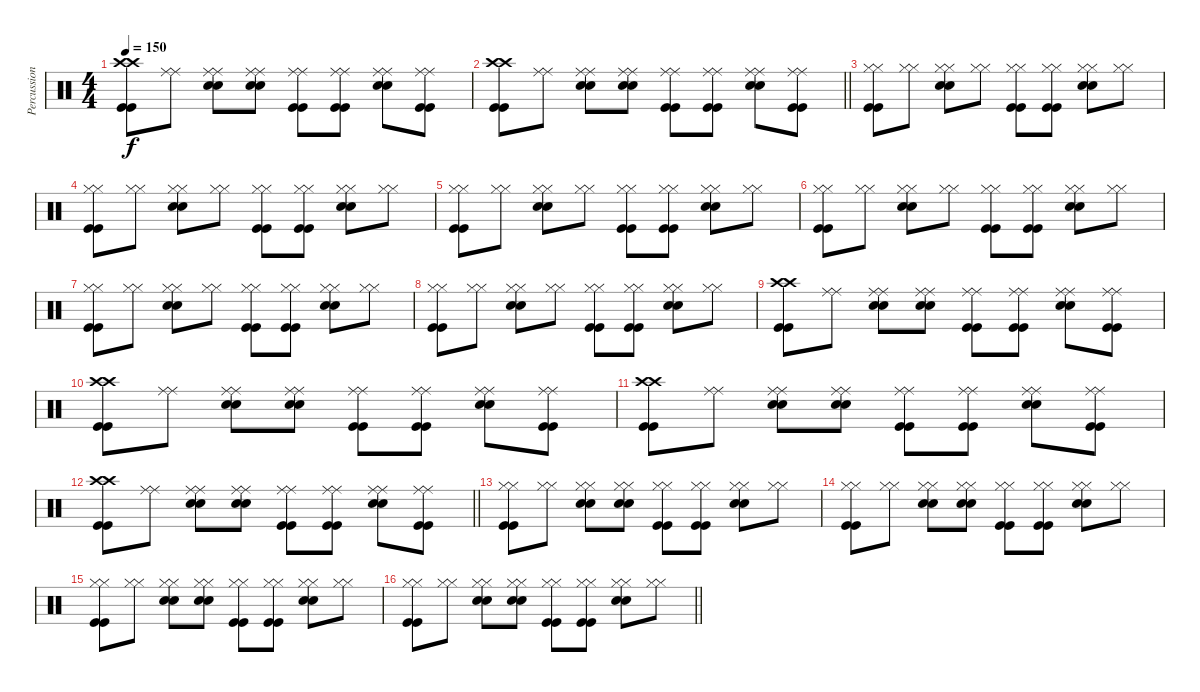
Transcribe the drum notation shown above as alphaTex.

\track ("Percussion" "Percussion") {instrument percussion bank 129}
\staff
\articulation defaults
\ts (4 4)
\tempo 150
\clef neutral
\ks c
("Crash high (hit)" "Crash high (hit)" "Kick (hit)" "Kick (hit)").8{dy f} ("Ride (middle)" "Ride (middle)").8 ("Ride (middle)" "Ride (middle)" "Snare (hit) 2" "Snare (hit) 2").8 ("Ride (middle)" "Ride (middle)" "Snare (hit) 2" "Snare (hit) 2").8 ("Ride (middle)" "Ride (middle)" "Kick (hit)" "Kick (hit)").8 ("Ride (middle)" "Ride (middle)" "Kick (hit)" "Kick (hit)").8 ("Ride (middle)" "Ride (middle)" "Snare (hit) 2" "Snare (hit) 2").8 ("Ride (middle)" "Ride (middle)" "Kick (hit)" "Kick (hit)").8 |
\barLineRight lightlight
("Crash high (hit)" "Crash high (hit)" "Kick (hit)" "Kick (hit)").8 ("Ride (middle)" "Ride (middle)").8 ("Ride (middle)" "Ride (middle)" "Snare (hit) 2" "Snare (hit) 2").8 ("Ride (middle)" "Ride (middle)" "Snare (hit) 2" "Snare (hit) 2").8 ("Ride (middle)" "Ride (middle)" "Kick (hit)" "Kick (hit)").8 ("Ride (middle)" "Ride (middle)" "Kick (hit)" "Kick (hit)").8 ("Ride (middle)" "Ride (middle)" "Snare (hit) 2" "Snare (hit) 2").8 ("Ride (middle)" "Ride (middle)" "Kick (hit)" "Kick (hit)").8 |
("Hi-Hat (closed)" "Hi-Hat (closed)" "Kick (hit)" "Kick (hit)").8 ("Hi-Hat (closed)" "Hi-Hat (closed)").8 ("Hi-Hat (closed)" "Hi-Hat (closed)" "Snare (hit) 2" "Snare (hit) 2").8 ("Hi-Hat (closed)" "Hi-Hat (closed)").8 ("Hi-Hat (closed)" "Hi-Hat (closed)" "Kick (hit)" "Kick (hit)").8 ("Hi-Hat (closed)" "Hi-Hat (closed)" "Kick (hit)" "Kick (hit)").8 ("Hi-Hat (closed)" "Hi-Hat (closed)" "Snare (hit) 2" "Snare (hit) 2").8 ("Hi-Hat (closed)" "Hi-Hat (closed)").8 |
("Hi-Hat (closed)" "Hi-Hat (closed)" "Kick (hit)" "Kick (hit)").8 ("Hi-Hat (closed)" "Hi-Hat (closed)").8 ("Hi-Hat (closed)" "Hi-Hat (closed)" "Snare (hit) 2" "Snare (hit) 2").8 ("Hi-Hat (closed)" "Hi-Hat (closed)").8 ("Hi-Hat (closed)" "Hi-Hat (closed)" "Kick (hit)" "Kick (hit)").8 ("Hi-Hat (closed)" "Hi-Hat (closed)" "Kick (hit)" "Kick (hit)").8 ("Hi-Hat (closed)" "Hi-Hat (closed)" "Snare (hit) 2" "Snare (hit) 2").8 ("Hi-Hat (closed)" "Hi-Hat (closed)").8 |
("Hi-Hat (closed)" "Hi-Hat (closed)" "Kick (hit)" "Kick (hit)").8 ("Hi-Hat (closed)" "Hi-Hat (closed)").8 ("Hi-Hat (closed)" "Hi-Hat (closed)" "Snare (hit) 2" "Snare (hit) 2").8 ("Hi-Hat (closed)" "Hi-Hat (closed)").8 ("Hi-Hat (closed)" "Hi-Hat (closed)" "Kick (hit)" "Kick (hit)").8 ("Hi-Hat (closed)" "Hi-Hat (closed)" "Kick (hit)" "Kick (hit)").8 ("Hi-Hat (closed)" "Hi-Hat (closed)" "Snare (hit) 2" "Snare (hit) 2").8 ("Hi-Hat (closed)" "Hi-Hat (closed)").8 |
("Hi-Hat (closed)" "Hi-Hat (closed)" "Kick (hit)" "Kick (hit)").8 ("Hi-Hat (closed)" "Hi-Hat (closed)").8 ("Hi-Hat (closed)" "Hi-Hat (closed)" "Snare (hit) 2" "Snare (hit) 2").8 ("Hi-Hat (closed)" "Hi-Hat (closed)").8 ("Hi-Hat (closed)" "Hi-Hat (closed)" "Kick (hit)" "Kick (hit)").8 ("Hi-Hat (closed)" "Hi-Hat (closed)" "Kick (hit)" "Kick (hit)").8 ("Hi-Hat (closed)" "Hi-Hat (closed)" "Snare (hit) 2" "Snare (hit) 2").8 ("Hi-Hat (closed)" "Hi-Hat (closed)").8 |
("Hi-Hat (closed)" "Hi-Hat (closed)" "Kick (hit)" "Kick (hit)").8 ("Hi-Hat (closed)" "Hi-Hat (closed)").8 ("Hi-Hat (closed)" "Hi-Hat (closed)" "Snare (hit) 2" "Snare (hit) 2").8 ("Hi-Hat (closed)" "Hi-Hat (closed)").8 ("Hi-Hat (closed)" "Hi-Hat (closed)" "Kick (hit)" "Kick (hit)").8 ("Hi-Hat (closed)" "Hi-Hat (closed)" "Kick (hit)" "Kick (hit)").8 ("Hi-Hat (closed)" "Hi-Hat (closed)" "Snare (hit) 2" "Snare (hit) 2").8 ("Hi-Hat (closed)" "Hi-Hat (closed)").8 |
("Hi-Hat (closed)" "Hi-Hat (closed)" "Kick (hit)" "Kick (hit)").8 ("Hi-Hat (closed)" "Hi-Hat (closed)").8 ("Hi-Hat (closed)" "Hi-Hat (closed)" "Snare (hit) 2" "Snare (hit) 2").8 ("Hi-Hat (closed)" "Hi-Hat (closed)").8 ("Hi-Hat (closed)" "Hi-Hat (closed)" "Kick (hit)" "Kick (hit)").8 ("Hi-Hat (closed)" "Hi-Hat (closed)" "Kick (hit)" "Kick (hit)").8 ("Hi-Hat (closed)" "Hi-Hat (closed)" "Snare (hit) 2" "Snare (hit) 2").8 ("Hi-Hat (closed)" "Hi-Hat (closed)").8 |
("Crash high (hit)" "Crash high (hit)" "Kick (hit)" "Kick (hit)").8 ("Ride (middle)" "Ride (middle)").8 ("Ride (middle)" "Ride (middle)" "Snare (hit) 2" "Snare (hit) 2").8 ("Ride (middle)" "Ride (middle)" "Snare (hit) 2" "Snare (hit) 2").8 ("Ride (middle)" "Ride (middle)" "Kick (hit)" "Kick (hit)").8 ("Ride (middle)" "Ride (middle)" "Kick (hit)" "Kick (hit)").8 ("Ride (middle)" "Ride (middle)" "Snare (hit) 2" "Snare (hit) 2").8 ("Ride (middle)" "Ride (middle)" "Kick (hit)" "Kick (hit)").8 |
("Crash high (hit)" "Crash high (hit)" "Kick (hit)" "Kick (hit)").8 ("Ride (middle)" "Ride (middle)").8 ("Ride (middle)" "Ride (middle)" "Snare (hit) 2" "Snare (hit) 2").8 ("Ride (middle)" "Ride (middle)" "Snare (hit) 2" "Snare (hit) 2").8 ("Ride (middle)" "Ride (middle)" "Kick (hit)" "Kick (hit)").8 ("Ride (middle)" "Ride (middle)" "Kick (hit)" "Kick (hit)").8 ("Ride (middle)" "Ride (middle)" "Snare (hit) 2" "Snare (hit) 2").8 ("Ride (middle)" "Ride (middle)" "Kick (hit)" "Kick (hit)").8 |
("Crash high (hit)" "Crash high (hit)" "Kick (hit)" "Kick (hit)").8 ("Ride (middle)" "Ride (middle)").8 ("Ride (middle)" "Ride (middle)" "Snare (hit) 2" "Snare (hit) 2").8 ("Ride (middle)" "Ride (middle)" "Snare (hit) 2" "Snare (hit) 2").8 ("Ride (middle)" "Ride (middle)" "Kick (hit)" "Kick (hit)").8 ("Ride (middle)" "Ride (middle)" "Kick (hit)" "Kick (hit)").8 ("Ride (middle)" "Ride (middle)" "Snare (hit) 2" "Snare (hit) 2").8 ("Ride (middle)" "Ride (middle)" "Kick (hit)" "Kick (hit)").8 |
\barLineRight lightlight
("Crash high (hit)" "Crash high (hit)" "Kick (hit)" "Kick (hit)").8 ("Ride (middle)" "Ride (middle)").8 ("Ride (middle)" "Ride (middle)" "Snare (hit) 2" "Snare (hit) 2").8 ("Ride (middle)" "Ride (middle)" "Snare (hit) 2" "Snare (hit) 2").8 ("Ride (middle)" "Ride (middle)" "Kick (hit)" "Kick (hit)").8 ("Ride (middle)" "Ride (middle)" "Kick (hit)" "Kick (hit)").8 ("Ride (middle)" "Ride (middle)" "Snare (hit) 2" "Snare (hit) 2").8 ("Ride (middle)" "Ride (middle)" "Kick (hit)" "Kick (hit)").8 |
("Hi-Hat (closed)" "Hi-Hat (closed)" "Kick (hit)" "Kick (hit)").8 ("Hi-Hat (closed)" "Hi-Hat (closed)").8 ("Hi-Hat (closed)" "Hi-Hat (closed)" "Snare (hit) 2" "Snare (hit) 2").8 ("Hi-Hat (closed)" "Hi-Hat (closed)" "Snare (hit) 2" "Snare (hit) 2").8 ("Hi-Hat (closed)" "Hi-Hat (closed)" "Kick (hit)" "Kick (hit)").8 ("Hi-Hat (closed)" "Hi-Hat (closed)" "Kick (hit)" "Kick (hit)").8 ("Hi-Hat (closed)" "Hi-Hat (closed)" "Snare (hit) 2" "Snare (hit) 2").8 ("Hi-Hat (closed)" "Hi-Hat (closed)").8 |
("Hi-Hat (closed)" "Hi-Hat (closed)" "Kick (hit)" "Kick (hit)").8 ("Hi-Hat (closed)" "Hi-Hat (closed)").8 ("Hi-Hat (closed)" "Hi-Hat (closed)" "Snare (hit) 2" "Snare (hit) 2").8 ("Hi-Hat (closed)" "Hi-Hat (closed)" "Snare (hit) 2" "Snare (hit) 2").8 ("Hi-Hat (closed)" "Hi-Hat (closed)" "Kick (hit)" "Kick (hit)").8 ("Hi-Hat (closed)" "Hi-Hat (closed)" "Kick (hit)" "Kick (hit)").8 ("Hi-Hat (closed)" "Hi-Hat (closed)" "Snare (hit) 2" "Snare (hit) 2").8 ("Hi-Hat (closed)" "Hi-Hat (closed)").8 |
("Hi-Hat (closed)" "Hi-Hat (closed)" "Kick (hit)" "Kick (hit)").8 ("Hi-Hat (closed)" "Hi-Hat (closed)").8 ("Hi-Hat (closed)" "Hi-Hat (closed)" "Snare (hit) 2" "Snare (hit) 2").8 ("Hi-Hat (closed)" "Hi-Hat (closed)" "Snare (hit) 2" "Snare (hit) 2").8 ("Hi-Hat (closed)" "Hi-Hat (closed)" "Kick (hit)" "Kick (hit)").8 ("Hi-Hat (closed)" "Hi-Hat (closed)" "Kick (hit)" "Kick (hit)").8 ("Hi-Hat (closed)" "Hi-Hat (closed)" "Snare (hit) 2" "Snare (hit) 2").8 ("Hi-Hat (closed)" "Hi-Hat (closed)").8 |
\barLineRight lightlight
("Hi-Hat (closed)" "Hi-Hat (closed)" "Kick (hit)" "Kick (hit)").8 ("Hi-Hat (closed)" "Hi-Hat (closed)").8 ("Hi-Hat (closed)" "Hi-Hat (closed)" "Snare (hit) 2" "Snare (hit) 2").8 ("Hi-Hat (closed)" "Hi-Hat (closed)" "Snare (hit) 2" "Snare (hit) 2").8 ("Hi-Hat (closed)" "Hi-Hat (closed)" "Kick (hit)" "Kick (hit)").8 ("Hi-Hat (closed)" "Hi-Hat (closed)" "Kick (hit)" "Kick (hit)").8 ("Hi-Hat (closed)" "Hi-Hat (closed)" "Snare (hit) 2" "Snare (hit) 2").8 ("Hi-Hat (closed)" "Hi-Hat (closed)").8
